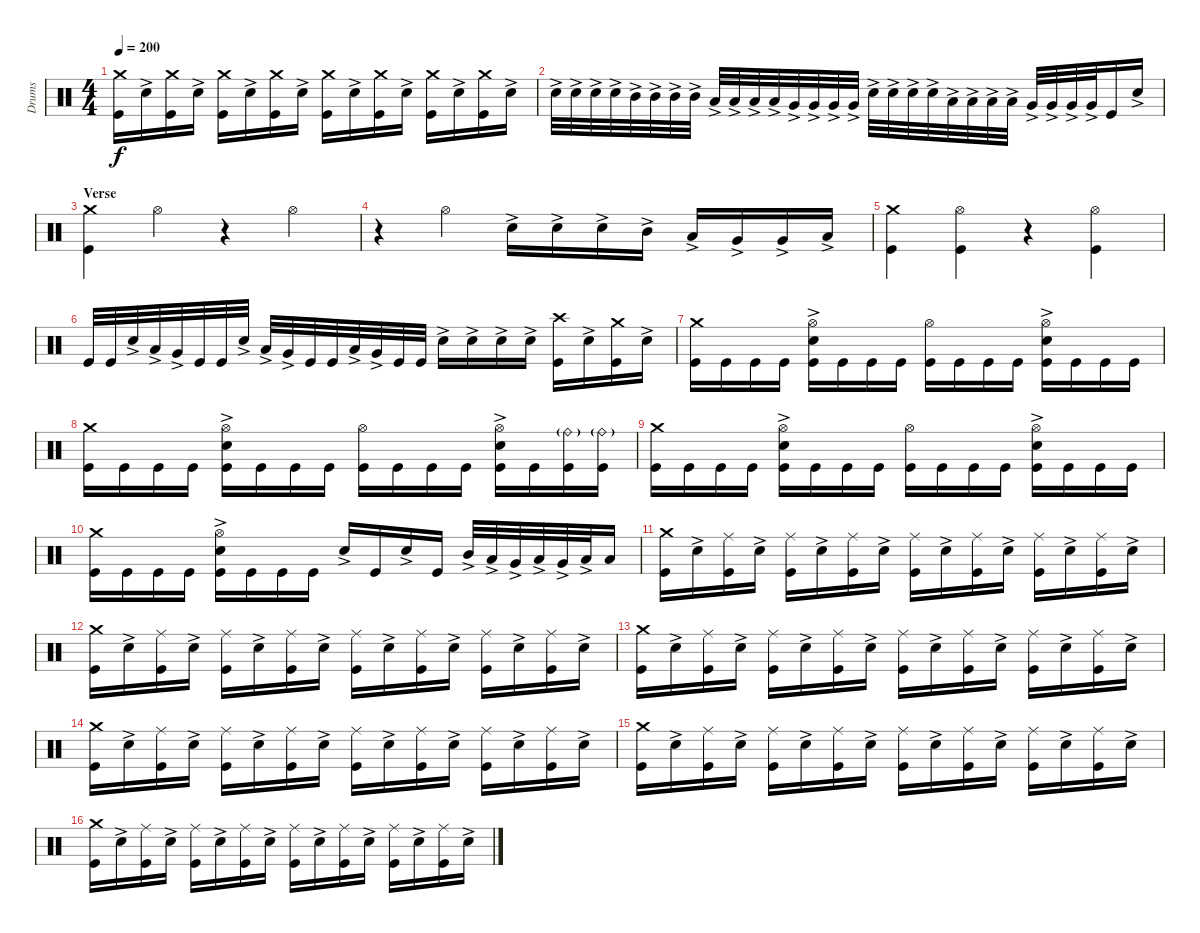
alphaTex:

\track ("Drums" "Drums") {instrument percussion}
\staff {score}
\articulation defaults
\ts (4 4)
\tempo 200
\clef neutral
\ks c
("Kick (hit)" "Crash medium (hit)").16{dy f} "Snare (hit) 2"{ac}.16 ("Kick (hit)" "Crash medium (hit)").16 "Snare (hit) 2"{ac}.16 ("Kick (hit)" "Crash medium (hit)").16 "Snare (hit) 2"{ac}.16 ("Kick (hit)" "Crash medium (hit)").16 "Snare (hit) 2"{ac}.16 ("Kick (hit)" "Crash medium (hit)").16 "Snare (hit) 2"{ac}.16 ("Kick (hit)" "Crash medium (hit)").16 "Snare (hit) 2"{ac}.16 ("Kick (hit)" "Crash medium (hit)").16 "Snare (hit) 2"{ac}.16 ("Kick (hit)" "Crash medium (hit)").16 "Snare (hit) 2"{ac}.16 |
"Snare (hit) 2"{ac}.32 "Snare (hit) 2"{ac}.32 "Snare (hit) 2"{ac}.32 "Snare (hit) 2"{ac}.32 "Mid Tom (hit)"{ac}.32 "Mid Tom (hit)"{ac}.32 "Mid Tom (hit)"{ac}.32 "Mid Tom (hit)"{ac}.32 "Low Tom (hit)"{ac}.32 "Low Tom (hit)"{ac}.32 "Low Tom (hit)"{ac}.32 "Low Tom (hit)"{ac}.32 "Very Low Tom (hit)"{ac}.32 "Very Low Tom (hit)"{ac}.32 "Very Low Tom (hit)"{ac}.32 "Very Low Tom (hit)"{ac}.32 "Snare (hit) 2"{ac}.32 "Snare (hit) 2"{ac}.32 "Snare (hit) 2"{ac}.32 "Snare (hit) 2"{ac}.32 "Low Tom (hit)"{ac}.32 "Low Tom (hit)"{ac}.32 "Low Tom (hit)"{ac}.32 "Low Tom (hit)"{ac}.32 "Very Low Tom (hit)"{ac}.32 "Very Low Tom (hit)"{ac}.32 "Very Low Tom (hit)"{ac}.32 "Very Low Tom (hit)"{ac}.32 "Kick (hit)".16 "Snare (hit) 2"{ac}.16 |
\section ("" "Verse")
("Kick (hit)" "Crash medium (hit)").4 "Hi-Hat (open)".4 r.4 "Hi-Hat (open)".4 |
r.4 "Hi-Hat (open)".4 "Snare (hit) 2"{ac}.16 "Snare (hit) 2"{ac}.16 "Snare (hit) 2"{ac}.16 "Mid Tom (hit)"{ac}.16 "Low Tom (hit)"{ac}.16 "Very Low Tom (hit)"{ac}.16 "Very Low Tom (hit)"{ac}.16 "Low Floor Tom (hit)"{ac}.16 |
("Kick (hit)" "Crash medium (hit)").4 ("Hi-Hat (open)" "Kick (hit)").4 r.4 ("Hi-Hat (open)" "Kick (hit)").4 |
"Kick (hit)".32 "Kick (hit)".32 "Snare (hit) 2"{ac}.32 "Low Tom (hit)"{ac}.32 "Very Low Tom (hit)"{ac}.32 "Kick (hit)".32 "Kick (hit)".32 "Snare (hit) 2"{ac}.32 "Low Tom (hit)"{ac}.32 "Very Low Tom (hit)"{ac}.32 "Kick (hit)".32 "Kick (hit)".32 "Low Tom (hit)"{ac}.32 "Very Low Tom (hit)"{ac}.32 "Kick (hit)".32 "Kick (hit)".32 "Snare (hit) 2"{ac}.16 "Snare (hit) 2"{ac}.16 "Snare (hit) 2"{ac}.16 "Snare (hit) 2"{ac}.16 ("Kick (hit)" "Crash high (hit)").16 "Snare (hit) 2"{ac}.16 ("Kick (hit)" "Crash medium (hit)").16 "Snare (hit) 2"{ac}.16 |
("Kick (hit)" "Crash medium (hit)").16 "Kick (hit)".16 "Kick (hit)".16 "Kick (hit)".16 ("Kick (hit)" "Hi-Hat (open)" "Snare (hit) 2"{ac}).16 "Kick (hit)".16 "Kick (hit)".16 "Kick (hit)".16 ("Kick (hit)" "Hi-Hat (open)").16 "Kick (hit)".16 "Kick (hit)".16 "Kick (hit)".16 ("Kick (hit)" "Hi-Hat (open)" "Snare (hit) 2"{ac}).16 "Kick (hit)".16 "Kick (hit)".16 "Kick (hit)".16 |
("Kick (hit)" "Crash medium (hit)").16 "Kick (hit)".16 "Kick (hit)".16 "Kick (hit)".16 ("Kick (hit)" "Hi-Hat (open)" "Snare (hit) 2"{ac}).16 "Kick (hit)".16 "Kick (hit)".16 "Kick (hit)".16 ("Kick (hit)" "Hi-Hat (open)").16 "Kick (hit)".16 "Kick (hit)".16 "Kick (hit)".16 ("Kick (hit)" "Hi-Hat (open)" "Snare (hit) 2"{ac}).16 "Kick (hit)".16 ("Kick (hit)" "Ride (bell)"{g}).16 ("Kick (hit)" "Ride (bell)"{g}).16 |
("Kick (hit)" "Crash medium (hit)").16 "Kick (hit)".16 "Kick (hit)".16 "Kick (hit)".16 ("Kick (hit)" "Hi-Hat (open)" "Snare (hit) 2"{ac}).16 "Kick (hit)".16 "Kick (hit)".16 "Kick (hit)".16 ("Kick (hit)" "Hi-Hat (open)").16 "Kick (hit)".16 "Kick (hit)".16 "Kick (hit)".16 ("Kick (hit)" "Hi-Hat (open)" "Snare (hit) 2"{ac}).16 "Kick (hit)".16 "Kick (hit)".16 "Kick (hit)".16 |
("Kick (hit)" "Crash medium (hit)").16 "Kick (hit)".16 "Kick (hit)".16 "Kick (hit)".16 ("Kick (hit)" "Hi-Hat (open)" "Snare (hit) 2"{ac}).16 "Kick (hit)".16 "Kick (hit)".16 "Kick (hit)".16 "Snare (hit) 2"{ac}.16 "Kick (hit)".16 "Snare (hit) 2"{ac}.16 "Kick (hit)".16 "Mid Tom (hit)"{ac}.32 "Low Tom (hit)"{ac}.32 "Very Low Tom (hit)"{ac}.32 "Low Tom (hit)"{ac}.32 "Very Low Tom (hit)"{ac}.32 "Low Floor Tom (hit)"{ac}.32 "Low Floor Tom (hit)".16 |
("Kick (hit)" "Crash medium (hit)").16 "Snare (hit) 2"{ac}.16 ("Kick (hit)" "Ride (middle)").16 "Snare (hit) 2"{ac}.16 ("Kick (hit)" "Ride (middle)").16 "Snare (hit) 2"{ac}.16 ("Kick (hit)" "Ride (middle)").16 "Snare (hit) 2"{ac}.16 ("Kick (hit)" "Ride (middle)").16 "Snare (hit) 2"{ac}.16 ("Kick (hit)" "Ride (middle)").16 "Snare (hit) 2"{ac}.16 ("Kick (hit)" "Ride (middle)").16 "Snare (hit) 2"{ac}.16 ("Kick (hit)" "Ride (middle)").16 "Snare (hit) 2"{ac}.16 |
("Kick (hit)" "Crash medium (hit)").16 "Snare (hit) 2"{ac}.16 ("Kick (hit)" "Ride (middle)").16 "Snare (hit) 2"{ac}.16 ("Kick (hit)" "Ride (middle)").16 "Snare (hit) 2"{ac}.16 ("Kick (hit)" "Ride (middle)").16 "Snare (hit) 2"{ac}.16 ("Kick (hit)" "Ride (middle)").16 "Snare (hit) 2"{ac}.16 ("Kick (hit)" "Ride (middle)").16 "Snare (hit) 2"{ac}.16 ("Kick (hit)" "Ride (middle)").16 "Snare (hit) 2"{ac}.16 ("Kick (hit)" "Ride (middle)").16 "Snare (hit) 2"{ac}.16 |
("Kick (hit)" "Crash medium (hit)").16 "Snare (hit) 2"{ac}.16 ("Kick (hit)" "Ride (middle)").16 "Snare (hit) 2"{ac}.16 ("Kick (hit)" "Ride (middle)").16 "Snare (hit) 2"{ac}.16 ("Kick (hit)" "Ride (middle)").16 "Snare (hit) 2"{ac}.16 ("Kick (hit)" "Ride (middle)").16 "Snare (hit) 2"{ac}.16 ("Kick (hit)" "Ride (middle)").16 "Snare (hit) 2"{ac}.16 ("Kick (hit)" "Ride (middle)").16 "Snare (hit) 2"{ac}.16 ("Kick (hit)" "Ride (middle)").16 "Snare (hit) 2"{ac}.16 |
("Kick (hit)" "Crash medium (hit)").16 "Snare (hit) 2"{ac}.16 ("Kick (hit)" "Ride (middle)").16 "Snare (hit) 2"{ac}.16 ("Kick (hit)" "Ride (middle)").16 "Snare (hit) 2"{ac}.16 ("Kick (hit)" "Ride (middle)").16 "Snare (hit) 2"{ac}.16 ("Kick (hit)" "Ride (middle)").16 "Snare (hit) 2"{ac}.16 ("Kick (hit)" "Ride (middle)").16 "Snare (hit) 2"{ac}.16 ("Kick (hit)" "Ride (middle)").16 "Snare (hit) 2"{ac}.16 ("Kick (hit)" "Ride (middle)").16 "Snare (hit) 2"{ac}.16 |
("Kick (hit)" "Crash medium (hit)").16 "Snare (hit) 2"{ac}.16 ("Kick (hit)" "Ride (middle)").16 "Snare (hit) 2"{ac}.16 ("Kick (hit)" "Ride (middle)").16 "Snare (hit) 2"{ac}.16 ("Kick (hit)" "Ride (middle)").16 "Snare (hit) 2"{ac}.16 ("Kick (hit)" "Ride (middle)").16 "Snare (hit) 2"{ac}.16 ("Kick (hit)" "Ride (middle)").16 "Snare (hit) 2"{ac}.16 ("Kick (hit)" "Ride (middle)").16 "Snare (hit) 2"{ac}.16 ("Kick (hit)" "Ride (middle)").16 "Snare (hit) 2"{ac}.16 |
("Kick (hit)" "Crash medium (hit)").16 "Snare (hit) 2"{ac}.16 ("Kick (hit)" "Ride (middle)").16 "Snare (hit) 2"{ac}.16 ("Kick (hit)" "Ride (middle)").16 "Snare (hit) 2"{ac}.16 ("Kick (hit)" "Ride (middle)").16 "Snare (hit) 2"{ac}.16 ("Kick (hit)" "Ride (middle)").16 "Snare (hit) 2"{ac}.16 ("Kick (hit)" "Ride (middle)").16 "Snare (hit) 2"{ac}.16 ("Kick (hit)" "Ride (middle)").16 "Snare (hit) 2"{ac}.16 ("Kick (hit)" "Ride (middle)").16 "Snare (hit) 2"{ac}.16
